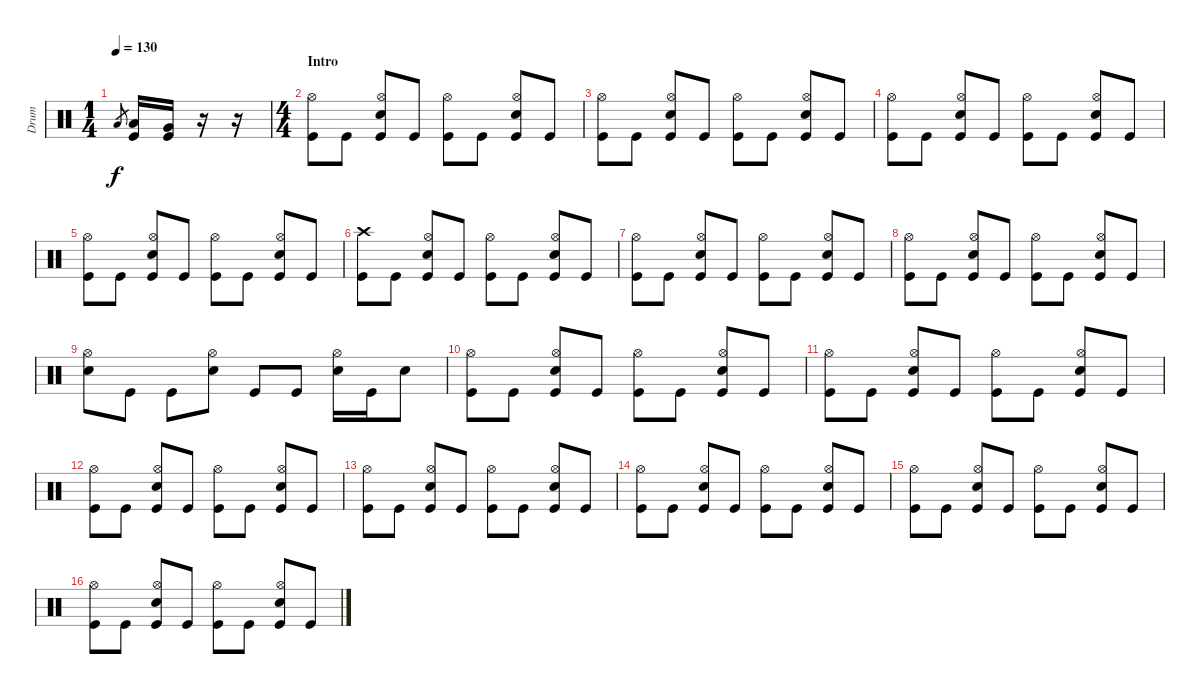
\track ("Drum" "Drum") {instrument percussion}
\staff {score}
\articulation defaults
\ts (1 4)
\tempo 130
\clef neutral
\ks c "Low Tom (hit)".8{gr dy f}
("Low Tom (hit)" "Kick (hit)").16 ("Very Low Tom (hit)" "Kick (hit)").16 r.16 r.16 |
\ts (4 4)
\section ("" "Intro")
("Hi-Hat (open)" "Kick (hit)").8 "Kick (hit)".8 ("Hi-Hat (open)" "Electric Snare (hit)" "Kick (hit)").8 "Kick (hit)".8 ("Hi-Hat (open)" "Kick (hit)").8 "Kick (hit)".8 ("Electric Snare (hit)" "Hi-Hat (open)" "Kick (hit)").8 "Kick (hit)".8 |
("Hi-Hat (open)" "Kick (hit)").8 "Kick (hit)".8 ("Hi-Hat (open)" "Electric Snare (hit)" "Kick (hit)").8 "Kick (hit)".8 ("Hi-Hat (open)" "Kick (hit)").8 "Kick (hit)".8 ("Electric Snare (hit)" "Hi-Hat (open)" "Kick (hit)").8 "Kick (hit)".8 |
("Hi-Hat (open)" "Kick (hit)").8 "Kick (hit)".8 ("Hi-Hat (open)" "Electric Snare (hit)" "Kick (hit)").8 "Kick (hit)".8 ("Hi-Hat (open)" "Kick (hit)").8 "Kick (hit)".8 ("Electric Snare (hit)" "Hi-Hat (open)" "Kick (hit)").8 "Kick (hit)".8 |
("Hi-Hat (open)" "Kick (hit)").8 "Kick (hit)".8 ("Hi-Hat (open)" "Electric Snare (hit)" "Kick (hit)").8 "Kick (hit)".8 ("Hi-Hat (open)" "Kick (hit)").8 "Kick (hit)".8 ("Electric Snare (hit)" "Hi-Hat (open)" "Kick (hit)").8 "Kick (hit)".8 |
("Crash high (hit)" "Kick (hit)").8 "Kick (hit)".8 ("Hi-Hat (open)" "Electric Snare (hit)" "Kick (hit)").8 "Kick (hit)".8 ("Hi-Hat (open)" "Kick (hit)").8 "Kick (hit)".8 ("Electric Snare (hit)" "Hi-Hat (open)" "Kick (hit)").8 "Kick (hit)".8 |
("Hi-Hat (open)" "Kick (hit)").8 "Kick (hit)".8 ("Hi-Hat (open)" "Electric Snare (hit)" "Kick (hit)").8 "Kick (hit)".8 ("Hi-Hat (open)" "Kick (hit)").8 "Kick (hit)".8 ("Electric Snare (hit)" "Hi-Hat (open)" "Kick (hit)").8 "Kick (hit)".8 |
("Hi-Hat (open)" "Kick (hit)").8 "Kick (hit)".8 ("Hi-Hat (open)" "Electric Snare (hit)" "Kick (hit)").8 "Kick (hit)".8 ("Hi-Hat (open)" "Kick (hit)").8 "Kick (hit)".8 ("Electric Snare (hit)" "Hi-Hat (open)" "Kick (hit)").8 "Kick (hit)".8 |
("Hi-Hat (open)" "Electric Snare (hit)").8 "Kick (hit)".8 "Kick (hit)".8 ("Hi-Hat (open)" "Electric Snare (hit)").8 "Kick (hit)".8 "Kick (hit)".8 ("Hi-Hat (open)" "Electric Snare (hit)").16 "Kick (hit)".16 "Electric Snare (hit)".8 |
("Hi-Hat (open)" "Kick (hit)").8 "Kick (hit)".8 ("Hi-Hat (open)" "Electric Snare (hit)" "Kick (hit)").8 "Kick (hit)".8 ("Hi-Hat (open)" "Kick (hit)").8 "Kick (hit)".8 ("Electric Snare (hit)" "Hi-Hat (open)" "Kick (hit)").8 "Kick (hit)".8 |
("Hi-Hat (open)" "Kick (hit)").8 "Kick (hit)".8 ("Hi-Hat (open)" "Electric Snare (hit)" "Kick (hit)").8 "Kick (hit)".8 ("Hi-Hat (open)" "Kick (hit)").8 "Kick (hit)".8 ("Electric Snare (hit)" "Hi-Hat (open)" "Kick (hit)").8 "Kick (hit)".8 |
("Hi-Hat (open)" "Kick (hit)").8 "Kick (hit)".8 ("Hi-Hat (open)" "Electric Snare (hit)" "Kick (hit)").8 "Kick (hit)".8 ("Hi-Hat (open)" "Kick (hit)").8 "Kick (hit)".8 ("Electric Snare (hit)" "Hi-Hat (open)" "Kick (hit)").8 "Kick (hit)".8 |
("Hi-Hat (open)" "Kick (hit)").8 "Kick (hit)".8 ("Hi-Hat (open)" "Electric Snare (hit)" "Kick (hit)").8 "Kick (hit)".8 ("Hi-Hat (open)" "Kick (hit)").8 "Kick (hit)".8 ("Electric Snare (hit)" "Hi-Hat (open)" "Kick (hit)").8 "Kick (hit)".8 |
("Hi-Hat (open)" "Kick (hit)").8 "Kick (hit)".8 ("Hi-Hat (open)" "Electric Snare (hit)" "Kick (hit)").8 "Kick (hit)".8 ("Hi-Hat (open)" "Kick (hit)").8 "Kick (hit)".8 ("Electric Snare (hit)" "Hi-Hat (open)" "Kick (hit)").8 "Kick (hit)".8 |
("Hi-Hat (open)" "Kick (hit)").8 "Kick (hit)".8 ("Hi-Hat (open)" "Electric Snare (hit)" "Kick (hit)").8 "Kick (hit)".8 ("Hi-Hat (open)" "Kick (hit)").8 "Kick (hit)".8 ("Electric Snare (hit)" "Hi-Hat (open)" "Kick (hit)").8 "Kick (hit)".8 |
("Hi-Hat (open)" "Kick (hit)").8 "Kick (hit)".8 ("Hi-Hat (open)" "Electric Snare (hit)" "Kick (hit)").8 "Kick (hit)".8 ("Hi-Hat (open)" "Kick (hit)").8 "Kick (hit)".8 ("Electric Snare (hit)" "Hi-Hat (open)" "Kick (hit)").8 "Kick (hit)".8
